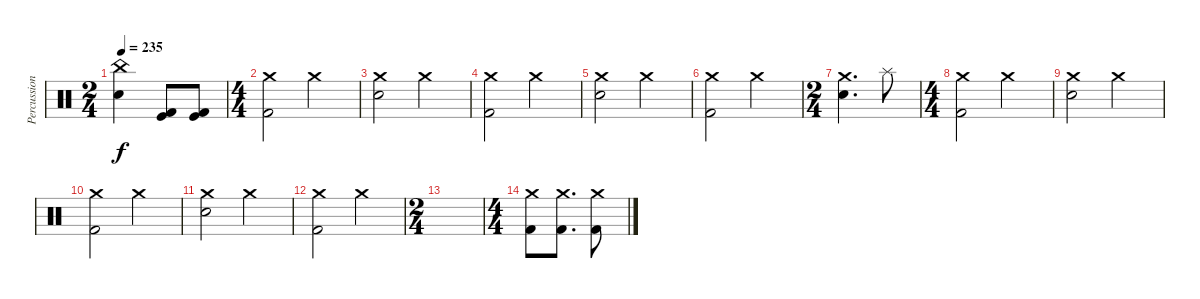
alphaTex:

\track ("Percussion" "Percussion") {instrument percussion}
\staff {score}
\articulation defaults
\ts (2 4)
\tempo 235
\clef neutral
\ks c
("China (hit)" "Snare (hit) 2").4{dy f} ("Kick (hit)" "Kick (hit) 2").8 ("Kick (hit)" "Kick (hit) 2").8 |
\ts (4 4)
("Crash medium (hit)" "Kick (hit) 2").2 "Crash medium (hit)".2 |
("Crash medium (hit)" "Snare (hit) 2").2 "Crash medium (hit)".2 |
("Crash medium (hit)" "Kick (hit) 2").2 "Crash medium (hit)".2 |
("Crash medium (hit)" "Snare (hit) 2").2 "Crash medium (hit)".2 |
("Crash medium (hit)" "Kick (hit) 2").2 "Crash medium (hit)".2 |
\ts (2 4)
("Crash medium (hit)" "Snare (hit) 2").4{d} "Splash (hit)".8 |
\ts (4 4)
("Crash medium (hit)" "Kick (hit) 2").2 "Crash medium (hit)".2 |
("Crash medium (hit)" "Snare (hit) 2").2 "Crash medium (hit)".2 |
("Crash medium (hit)" "Kick (hit) 2").2 "Crash medium (hit)".2 |
("Crash medium (hit)" "Snare (hit) 2").2 "Crash medium (hit)".2 |
("Crash medium (hit)" "Kick (hit) 2").2 "Crash medium (hit)".2 |
\ts (2 4)
|
\ts (4 4)
("Crash medium (hit)" "Kick (hit) 2").8 ("Crash medium (hit)" "Kick (hit) 2").8{d} ("Crash medium (hit)" "Kick (hit) 2").8
